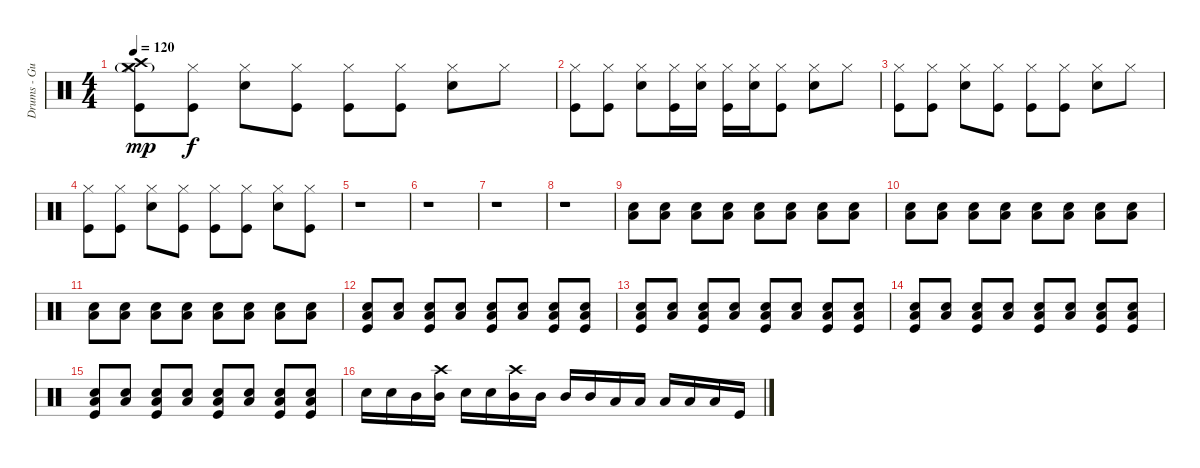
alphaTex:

\track ("Drums - Gustav" "Drums - Gu") {instrument percussion}
\staff {score}
\articulation defaults
\ts (4 4)
\tempo 120
\clef neutral
\ks c
("Kick (hit)" "Hi-Hat (closed)"{g} "Crash high (hit)" "Crash medium (hit)").8{dy mp} ("Kick (hit)" "Hi-Hat (closed)").8{dy f} ("Hi-Hat (closed)" "Snare (hit) 2").8 ("Kick (hit)" "Hi-Hat (closed)").8 ("Kick (hit)" "Hi-Hat (closed)").8 ("Kick (hit)" "Hi-Hat (closed)").8 ("Hi-Hat (closed)" "Snare (hit) 2").8 "Hi-Hat (closed)".8 |
("Kick (hit)" "Hi-Hat (closed)").8 ("Kick (hit)" "Hi-Hat (closed)").8 ("Hi-Hat (closed)" "Snare (hit) 2").8 ("Kick (hit)" "Hi-Hat (closed)").16 ("Hi-Hat (closed)" "Snare (hit) 2").16 ("Kick (hit)" "Hi-Hat (closed)").16 ("Hi-Hat (closed)" "Snare (hit) 2").16 ("Kick (hit)" "Hi-Hat (closed)").8 ("Hi-Hat (closed)" "Snare (hit) 2").8 "Hi-Hat (closed)".8 |
("Kick (hit)" "Hi-Hat (closed)").8 ("Kick (hit)" "Hi-Hat (closed)").8 ("Hi-Hat (closed)" "Snare (hit) 2").8 ("Kick (hit)" "Hi-Hat (closed)").8 ("Kick (hit)" "Hi-Hat (closed)").8 ("Kick (hit)" "Hi-Hat (closed)").8 ("Hi-Hat (closed)" "Snare (hit) 2").8 "Hi-Hat (closed)".8 |
("Kick (hit)" "Hi-Hat (closed)").8 ("Kick (hit)" "Hi-Hat (closed)").8 ("Hi-Hat (closed)" "Snare (hit) 2").8 ("Kick (hit)" "Hi-Hat (closed)").8 ("Kick (hit)" "Hi-Hat (closed)").8 ("Kick (hit)" "Hi-Hat (closed)").8 ("Hi-Hat (closed)" "Snare (hit) 2").8 ("Kick (hit)" "Hi-Hat (closed)").8 |
r.1 |
r.1 |
r.1 |
r.1{volume 0} |
("Low Floor Tom (hit)" "Snare (hit) 2").8{volume 16} ("Low Floor Tom (hit)" "Snare (hit) 2").8 ("Low Floor Tom (hit)" "Snare (hit) 2").8 ("Low Floor Tom (hit)" "Snare (hit) 2").8 ("Low Floor Tom (hit)" "Snare (hit) 2").8 ("Low Floor Tom (hit)" "Snare (hit) 2").8 ("Low Floor Tom (hit)" "Snare (hit) 2").8 ("Low Floor Tom (hit)" "Snare (hit) 2").8 |
("Low Floor Tom (hit)" "Snare (hit) 2").8 ("Low Floor Tom (hit)" "Snare (hit) 2").8 ("Low Floor Tom (hit)" "Snare (hit) 2").8 ("Low Floor Tom (hit)" "Snare (hit) 2").8 ("Low Floor Tom (hit)" "Snare (hit) 2").8 ("Low Floor Tom (hit)" "Snare (hit) 2").8 ("Low Floor Tom (hit)" "Snare (hit) 2").8 ("Low Floor Tom (hit)" "Snare (hit) 2").8 |
("Low Floor Tom (hit)" "Snare (hit) 2").8 ("Low Floor Tom (hit)" "Snare (hit) 2").8 ("Low Floor Tom (hit)" "Snare (hit) 2").8 ("Low Floor Tom (hit)" "Snare (hit) 2").8 ("Low Floor Tom (hit)" "Snare (hit) 2").8 ("Low Floor Tom (hit)" "Snare (hit) 2").8 ("Low Floor Tom (hit)" "Snare (hit) 2").8 ("Low Floor Tom (hit)" "Snare (hit) 2").8 |
("Kick (hit)" "Low Floor Tom (hit)" "Snare (hit) 2").8 ("Low Floor Tom (hit)" "Snare (hit) 2").8 ("Kick (hit)" "Low Floor Tom (hit)" "Snare (hit) 2").8 ("Low Floor Tom (hit)" "Snare (hit) 2").8 ("Kick (hit)" "Low Floor Tom (hit)" "Snare (hit) 2").8 ("Low Floor Tom (hit)" "Snare (hit) 2").8 ("Kick (hit)" "Low Floor Tom (hit)" "Snare (hit) 2").8 ("Kick (hit)" "Low Floor Tom (hit)" "Snare (hit) 2").8 |
("Kick (hit)" "Low Floor Tom (hit)" "Snare (hit) 2").8 ("Low Floor Tom (hit)" "Snare (hit) 2").8 ("Kick (hit)" "Low Floor Tom (hit)" "Snare (hit) 2").8 ("Low Floor Tom (hit)" "Snare (hit) 2").8 ("Kick (hit)" "Low Floor Tom (hit)" "Snare (hit) 2").8 ("Low Floor Tom (hit)" "Snare (hit) 2").8 ("Kick (hit)" "Low Floor Tom (hit)" "Snare (hit) 2").8 ("Kick (hit)" "Low Floor Tom (hit)" "Snare (hit) 2").8 |
("Kick (hit)" "Low Floor Tom (hit)" "Snare (hit) 2").8 ("Low Floor Tom (hit)" "Snare (hit) 2").8 ("Kick (hit)" "Low Floor Tom (hit)" "Snare (hit) 2").8 ("Low Floor Tom (hit)" "Snare (hit) 2").8 ("Kick (hit)" "Low Floor Tom (hit)" "Snare (hit) 2").8 ("Low Floor Tom (hit)" "Snare (hit) 2").8 ("Kick (hit)" "Low Floor Tom (hit)" "Snare (hit) 2").8 ("Kick (hit)" "Low Floor Tom (hit)" "Snare (hit) 2").8 |
("Kick (hit)" "Low Floor Tom (hit)" "Snare (hit) 2").8 ("Low Floor Tom (hit)" "Snare (hit) 2").8 ("Kick (hit)" "Low Floor Tom (hit)" "Snare (hit) 2").8 ("Low Floor Tom (hit)" "Snare (hit) 2").8 ("Kick (hit)" "Low Floor Tom (hit)" "Snare (hit) 2").8 ("Low Floor Tom (hit)" "Snare (hit) 2").8 ("Kick (hit)" "Low Floor Tom (hit)" "Snare (hit) 2").8 ("Kick (hit)" "Low Floor Tom (hit)" "Snare (hit) 2").8 |
"Snare (hit) 2".16 "Snare (hit) 2".16 "Mid Tom (hit)".16 ("Mid Tom (hit)" "Crash high (hit)").16 "Snare (hit) 2".16 "Snare (hit) 2".16 ("Mid Tom (hit)" "Crash high (hit)").16 "Mid Tom (hit)".16 "Mid Tom (hit)".16 "Mid Tom (hit)".16 "Low Tom (hit)".16 "Low Tom (hit)".16 "Low Tom (hit)".16 "Low Tom (hit)".16 "Low Floor Tom (hit)".16 "Kick (hit)".16
